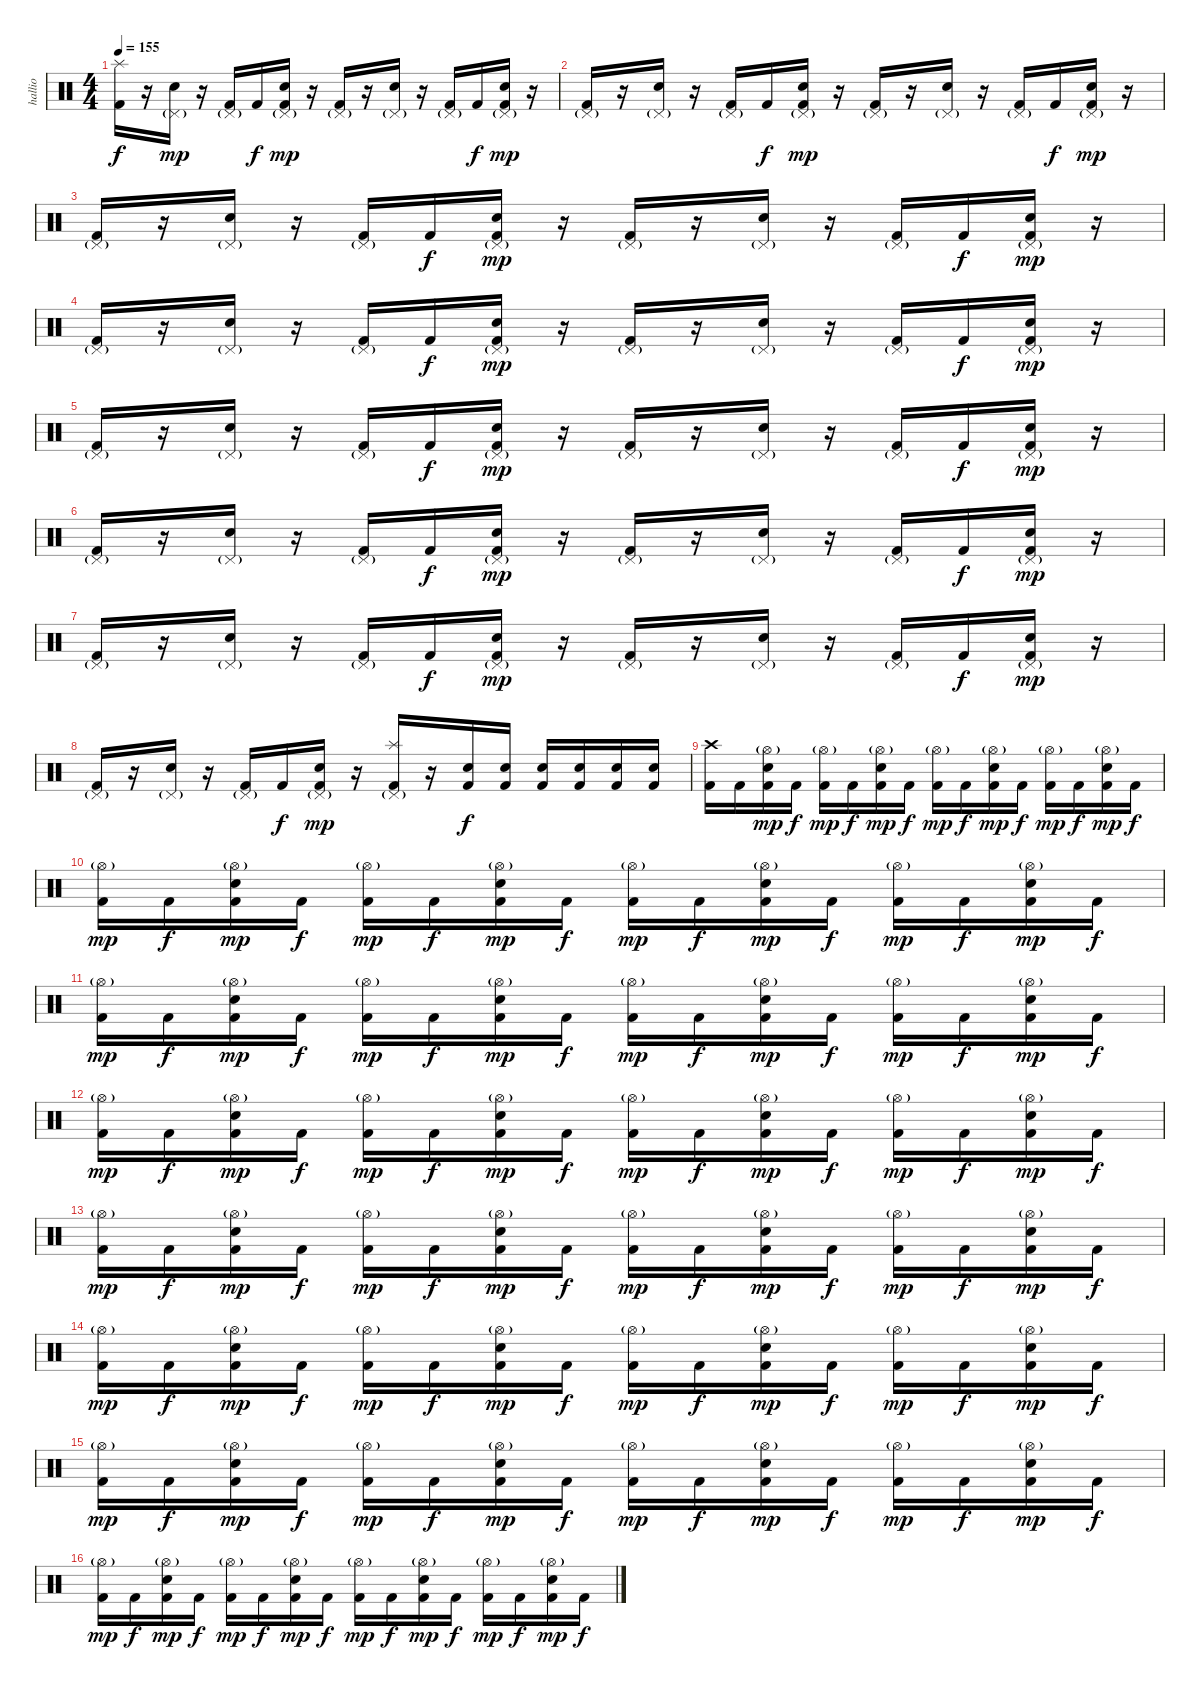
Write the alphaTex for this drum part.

\track ("hallio" "hallio") {instrument percussion}
\staff {score}
\articulation defaults
\ts (4 4)
\tempo 155
\clef neutral
\ks c
("Kick (hit) 2" "Splash (hit)").16{dy f} r.16 ("Snare (hit) 2" "Pedal Hi-Hat (hit)"{g}).16{dy mp} r.16 ("Kick (hit) 2" "Pedal Hi-Hat (hit)"{g}).16 "Kick (hit) 2".16{dy f} ("Kick (hit) 2" "Snare (hit) 2" "Pedal Hi-Hat (hit)"{g}).16{dy mp} r.16 ("Kick (hit) 2" "Pedal Hi-Hat (hit)"{g}).16 r.16 ("Snare (hit) 2" "Pedal Hi-Hat (hit)"{g}).16 r.16 ("Kick (hit) 2" "Pedal Hi-Hat (hit)"{g}).16 "Kick (hit) 2".16{dy f} ("Kick (hit) 2" "Snare (hit) 2" "Pedal Hi-Hat (hit)"{g}).16{dy mp} r.16 |
("Kick (hit) 2" "Pedal Hi-Hat (hit)"{g}).16 r.16 ("Snare (hit) 2" "Pedal Hi-Hat (hit)"{g}).16 r.16 ("Kick (hit) 2" "Pedal Hi-Hat (hit)"{g}).16 "Kick (hit) 2".16{dy f} ("Kick (hit) 2" "Snare (hit) 2" "Pedal Hi-Hat (hit)"{g}).16{dy mp} r.16 ("Kick (hit) 2" "Pedal Hi-Hat (hit)"{g}).16 r.16 ("Snare (hit) 2" "Pedal Hi-Hat (hit)"{g}).16 r.16 ("Kick (hit) 2" "Pedal Hi-Hat (hit)"{g}).16 "Kick (hit) 2".16{dy f} ("Kick (hit) 2" "Snare (hit) 2" "Pedal Hi-Hat (hit)"{g}).16{dy mp} r.16 |
("Kick (hit) 2" "Pedal Hi-Hat (hit)"{g}).16 r.16 ("Snare (hit) 2" "Pedal Hi-Hat (hit)"{g}).16 r.16 ("Kick (hit) 2" "Pedal Hi-Hat (hit)"{g}).16 "Kick (hit) 2".16{dy f} ("Kick (hit) 2" "Snare (hit) 2" "Pedal Hi-Hat (hit)"{g}).16{dy mp} r.16 ("Kick (hit) 2" "Pedal Hi-Hat (hit)"{g}).16 r.16 ("Snare (hit) 2" "Pedal Hi-Hat (hit)"{g}).16 r.16 ("Kick (hit) 2" "Pedal Hi-Hat (hit)"{g}).16 "Kick (hit) 2".16{dy f} ("Kick (hit) 2" "Snare (hit) 2" "Pedal Hi-Hat (hit)"{g}).16{dy mp} r.16 |
("Kick (hit) 2" "Pedal Hi-Hat (hit)"{g}).16 r.16 ("Snare (hit) 2" "Pedal Hi-Hat (hit)"{g}).16 r.16 ("Kick (hit) 2" "Pedal Hi-Hat (hit)"{g}).16 "Kick (hit) 2".16{dy f} ("Kick (hit) 2" "Snare (hit) 2" "Pedal Hi-Hat (hit)"{g}).16{dy mp} r.16 ("Kick (hit) 2" "Pedal Hi-Hat (hit)"{g}).16 r.16 ("Snare (hit) 2" "Pedal Hi-Hat (hit)"{g}).16 r.16 ("Kick (hit) 2" "Pedal Hi-Hat (hit)"{g}).16 "Kick (hit) 2".16{dy f} ("Kick (hit) 2" "Snare (hit) 2" "Pedal Hi-Hat (hit)"{g}).16{dy mp} r.16 |
("Kick (hit) 2" "Pedal Hi-Hat (hit)"{g}).16 r.16 ("Snare (hit) 2" "Pedal Hi-Hat (hit)"{g}).16 r.16 ("Kick (hit) 2" "Pedal Hi-Hat (hit)"{g}).16 "Kick (hit) 2".16{dy f} ("Kick (hit) 2" "Snare (hit) 2" "Pedal Hi-Hat (hit)"{g}).16{dy mp} r.16 ("Kick (hit) 2" "Pedal Hi-Hat (hit)"{g}).16 r.16 ("Snare (hit) 2" "Pedal Hi-Hat (hit)"{g}).16 r.16 ("Kick (hit) 2" "Pedal Hi-Hat (hit)"{g}).16 "Kick (hit) 2".16{dy f} ("Kick (hit) 2" "Snare (hit) 2" "Pedal Hi-Hat (hit)"{g}).16{dy mp} r.16 |
("Kick (hit) 2" "Pedal Hi-Hat (hit)"{g}).16 r.16 ("Snare (hit) 2" "Pedal Hi-Hat (hit)"{g}).16 r.16 ("Kick (hit) 2" "Pedal Hi-Hat (hit)"{g}).16 "Kick (hit) 2".16{dy f} ("Kick (hit) 2" "Snare (hit) 2" "Pedal Hi-Hat (hit)"{g}).16{dy mp} r.16 ("Kick (hit) 2" "Pedal Hi-Hat (hit)"{g}).16 r.16 ("Snare (hit) 2" "Pedal Hi-Hat (hit)"{g}).16 r.16 ("Kick (hit) 2" "Pedal Hi-Hat (hit)"{g}).16 "Kick (hit) 2".16{dy f} ("Kick (hit) 2" "Snare (hit) 2" "Pedal Hi-Hat (hit)"{g}).16{dy mp} r.16 |
("Kick (hit) 2" "Pedal Hi-Hat (hit)"{g}).16 r.16 ("Snare (hit) 2" "Pedal Hi-Hat (hit)"{g}).16 r.16 ("Kick (hit) 2" "Pedal Hi-Hat (hit)"{g}).16 "Kick (hit) 2".16{dy f} ("Kick (hit) 2" "Snare (hit) 2" "Pedal Hi-Hat (hit)"{g}).16{dy mp} r.16 ("Kick (hit) 2" "Pedal Hi-Hat (hit)"{g}).16 r.16 ("Snare (hit) 2" "Pedal Hi-Hat (hit)"{g}).16 r.16 ("Kick (hit) 2" "Pedal Hi-Hat (hit)"{g}).16 "Kick (hit) 2".16{dy f} ("Kick (hit) 2" "Snare (hit) 2" "Pedal Hi-Hat (hit)"{g}).16{dy mp} r.16 |
("Kick (hit) 2" "Pedal Hi-Hat (hit)"{g}).16 r.16 ("Snare (hit) 2" "Pedal Hi-Hat (hit)"{g}).16 r.16 ("Kick (hit) 2" "Pedal Hi-Hat (hit)"{g}).16 "Kick (hit) 2".16{dy f} ("Kick (hit) 2" "Snare (hit) 2" "Pedal Hi-Hat (hit)"{g}).16{dy mp} r.16 ("Kick (hit) 2" "Splash (hit)" "Pedal Hi-Hat (hit)"{g}).16 r.16 ("Kick (hit) 2" "Snare (hit) 2").16{dy f} ("Kick (hit) 2" "Snare (hit) 2").16 ("Kick (hit) 2" "Snare (hit) 2").16 ("Kick (hit) 2" "Snare (hit) 2").16 ("Kick (hit) 2" "Snare (hit) 2").16 ("Kick (hit) 2" "Snare (hit) 2").16 |
("Kick (hit) 2" "Crash high (hit)").16 "Kick (hit) 2".16 ("Kick (hit) 2" "Snare (hit) 2" "Hi-Hat (open)"{g}).16{dy mp} "Kick (hit) 2".16{dy f} ("Kick (hit) 2" "Hi-Hat (open)"{g}).16{dy mp} "Kick (hit) 2".16{dy f} ("Kick (hit) 2" "Snare (hit) 2" "Hi-Hat (open)"{g}).16{dy mp} "Kick (hit) 2".16{dy f} ("Kick (hit) 2" "Hi-Hat (open)"{g}).16{dy mp} "Kick (hit) 2".16{dy f} ("Kick (hit) 2" "Snare (hit) 2" "Hi-Hat (open)"{g}).16{dy mp} "Kick (hit) 2".16{dy f} ("Kick (hit) 2" "Hi-Hat (open)"{g}).16{dy mp} "Kick (hit) 2".16{dy f} ("Kick (hit) 2" "Snare (hit) 2" "Hi-Hat (open)"{g}).16{dy mp} "Kick (hit) 2".16{dy f} |
("Kick (hit) 2" "Hi-Hat (open)"{g}).16{dy mp} "Kick (hit) 2".16{dy f} ("Kick (hit) 2" "Snare (hit) 2" "Hi-Hat (open)"{g}).16{dy mp} "Kick (hit) 2".16{dy f} ("Kick (hit) 2" "Hi-Hat (open)"{g}).16{dy mp} "Kick (hit) 2".16{dy f} ("Kick (hit) 2" "Snare (hit) 2" "Hi-Hat (open)"{g}).16{dy mp} "Kick (hit) 2".16{dy f} ("Kick (hit) 2" "Hi-Hat (open)"{g}).16{dy mp} "Kick (hit) 2".16{dy f} ("Kick (hit) 2" "Snare (hit) 2" "Hi-Hat (open)"{g}).16{dy mp} "Kick (hit) 2".16{dy f} ("Kick (hit) 2" "Hi-Hat (open)"{g}).16{dy mp} "Kick (hit) 2".16{dy f} ("Kick (hit) 2" "Snare (hit) 2" "Hi-Hat (open)"{g}).16{dy mp} "Kick (hit) 2".16{dy f} |
("Kick (hit) 2" "Hi-Hat (open)"{g}).16{dy mp} "Kick (hit) 2".16{dy f} ("Kick (hit) 2" "Snare (hit) 2" "Hi-Hat (open)"{g}).16{dy mp} "Kick (hit) 2".16{dy f} ("Kick (hit) 2" "Hi-Hat (open)"{g}).16{dy mp} "Kick (hit) 2".16{dy f} ("Kick (hit) 2" "Snare (hit) 2" "Hi-Hat (open)"{g}).16{dy mp} "Kick (hit) 2".16{dy f} ("Kick (hit) 2" "Hi-Hat (open)"{g}).16{dy mp} "Kick (hit) 2".16{dy f} ("Kick (hit) 2" "Snare (hit) 2" "Hi-Hat (open)"{g}).16{dy mp} "Kick (hit) 2".16{dy f} ("Kick (hit) 2" "Hi-Hat (open)"{g}).16{dy mp} "Kick (hit) 2".16{dy f} ("Kick (hit) 2" "Snare (hit) 2" "Hi-Hat (open)"{g}).16{dy mp} "Kick (hit) 2".16{dy f} |
("Kick (hit) 2" "Hi-Hat (open)"{g}).16{dy mp} "Kick (hit) 2".16{dy f} ("Kick (hit) 2" "Snare (hit) 2" "Hi-Hat (open)"{g}).16{dy mp} "Kick (hit) 2".16{dy f} ("Kick (hit) 2" "Hi-Hat (open)"{g}).16{dy mp} "Kick (hit) 2".16{dy f} ("Kick (hit) 2" "Snare (hit) 2" "Hi-Hat (open)"{g}).16{dy mp} "Kick (hit) 2".16{dy f} ("Kick (hit) 2" "Hi-Hat (open)"{g}).16{dy mp} "Kick (hit) 2".16{dy f} ("Kick (hit) 2" "Snare (hit) 2" "Hi-Hat (open)"{g}).16{dy mp} "Kick (hit) 2".16{dy f} ("Kick (hit) 2" "Hi-Hat (open)"{g}).16{dy mp} "Kick (hit) 2".16{dy f} ("Kick (hit) 2" "Snare (hit) 2" "Hi-Hat (open)"{g}).16{dy mp} "Kick (hit) 2".16{dy f} |
("Kick (hit) 2" "Hi-Hat (open)"{g}).16{dy mp} "Kick (hit) 2".16{dy f} ("Kick (hit) 2" "Snare (hit) 2" "Hi-Hat (open)"{g}).16{dy mp} "Kick (hit) 2".16{dy f} ("Kick (hit) 2" "Hi-Hat (open)"{g}).16{dy mp} "Kick (hit) 2".16{dy f} ("Kick (hit) 2" "Snare (hit) 2" "Hi-Hat (open)"{g}).16{dy mp} "Kick (hit) 2".16{dy f} ("Kick (hit) 2" "Hi-Hat (open)"{g}).16{dy mp} "Kick (hit) 2".16{dy f} ("Kick (hit) 2" "Snare (hit) 2" "Hi-Hat (open)"{g}).16{dy mp} "Kick (hit) 2".16{dy f} ("Kick (hit) 2" "Hi-Hat (open)"{g}).16{dy mp} "Kick (hit) 2".16{dy f} ("Kick (hit) 2" "Snare (hit) 2" "Hi-Hat (open)"{g}).16{dy mp} "Kick (hit) 2".16{dy f} |
("Kick (hit) 2" "Hi-Hat (open)"{g}).16{dy mp} "Kick (hit) 2".16{dy f} ("Kick (hit) 2" "Snare (hit) 2" "Hi-Hat (open)"{g}).16{dy mp} "Kick (hit) 2".16{dy f} ("Kick (hit) 2" "Hi-Hat (open)"{g}).16{dy mp} "Kick (hit) 2".16{dy f} ("Kick (hit) 2" "Snare (hit) 2" "Hi-Hat (open)"{g}).16{dy mp} "Kick (hit) 2".16{dy f} ("Kick (hit) 2" "Hi-Hat (open)"{g}).16{dy mp} "Kick (hit) 2".16{dy f} ("Kick (hit) 2" "Snare (hit) 2" "Hi-Hat (open)"{g}).16{dy mp} "Kick (hit) 2".16{dy f} ("Kick (hit) 2" "Hi-Hat (open)"{g}).16{dy mp} "Kick (hit) 2".16{dy f} ("Kick (hit) 2" "Snare (hit) 2" "Hi-Hat (open)"{g}).16{dy mp} "Kick (hit) 2".16{dy f} |
("Kick (hit) 2" "Hi-Hat (open)"{g}).16{dy mp} "Kick (hit) 2".16{dy f} ("Kick (hit) 2" "Snare (hit) 2" "Hi-Hat (open)"{g}).16{dy mp} "Kick (hit) 2".16{dy f} ("Kick (hit) 2" "Hi-Hat (open)"{g}).16{dy mp} "Kick (hit) 2".16{dy f} ("Kick (hit) 2" "Snare (hit) 2" "Hi-Hat (open)"{g}).16{dy mp} "Kick (hit) 2".16{dy f} ("Kick (hit) 2" "Hi-Hat (open)"{g}).16{dy mp} "Kick (hit) 2".16{dy f} ("Kick (hit) 2" "Snare (hit) 2" "Hi-Hat (open)"{g}).16{dy mp} "Kick (hit) 2".16{dy f} ("Kick (hit) 2" "Hi-Hat (open)"{g}).16{dy mp} "Kick (hit) 2".16{dy f} ("Kick (hit) 2" "Snare (hit) 2" "Hi-Hat (open)"{g}).16{dy mp} "Kick (hit) 2".16{dy f} |
("Kick (hit) 2" "Hi-Hat (open)"{g}).16{dy mp} "Kick (hit) 2".16{dy f} ("Kick (hit) 2" "Snare (hit) 2" "Hi-Hat (open)"{g}).16{dy mp} "Kick (hit) 2".16{dy f} ("Kick (hit) 2" "Hi-Hat (open)"{g}).16{dy mp} "Kick (hit) 2".16{dy f} ("Kick (hit) 2" "Snare (hit) 2" "Hi-Hat (open)"{g}).16{dy mp} "Kick (hit) 2".16{dy f} ("Kick (hit) 2" "Hi-Hat (open)"{g}).16{dy mp} "Kick (hit) 2".16{dy f} ("Kick (hit) 2" "Snare (hit) 2" "Hi-Hat (open)"{g}).16{dy mp} "Kick (hit) 2".16{dy f} ("Kick (hit) 2" "Hi-Hat (open)"{g}).16{dy mp} "Kick (hit) 2".16{dy f} ("Kick (hit) 2" "Snare (hit) 2" "Hi-Hat (open)"{g}).16{dy mp} "Kick (hit) 2".16{dy f}
